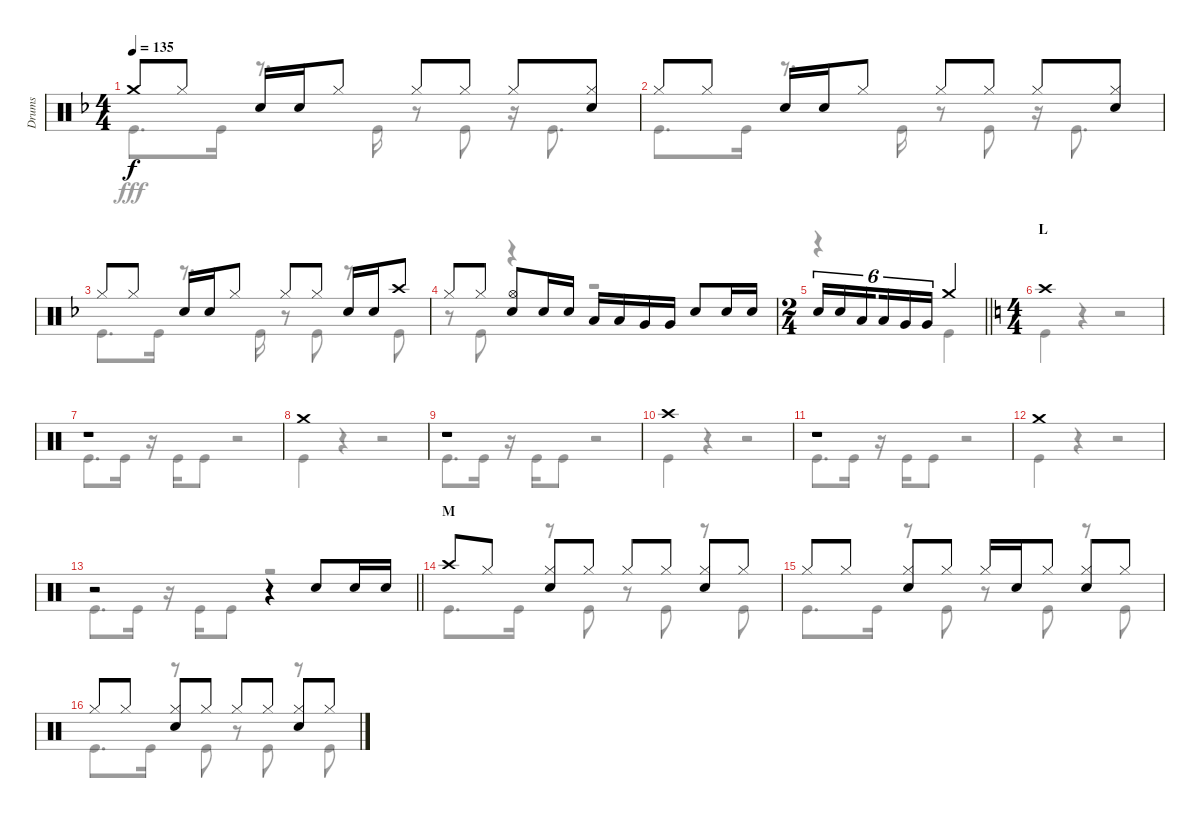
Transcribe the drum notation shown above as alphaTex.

\track ("Drums" "Drums") {instrument percussion}
\staff {score}
\articulation defaults
\voice
\ts (4 4)
\tempo 135
\clef neutral
\ks f "Crash medium (hit)".8{dy f} "Hi-Hat (closed)".8 "Snare (hit) 2".16 "Snare (hit) 2".16 "Hi-Hat (closed)".8 "Hi-Hat (closed)".8 "Hi-Hat (closed)".8 "Hi-Hat (closed)".8
("Hi-Hat (closed)" "Snare (hit) 2").8 |
"Hi-Hat (closed)".8 "Hi-Hat (closed)".8 "Snare (hit) 2".16 "Snare (hit) 2".16 "Hi-Hat (closed)".8 "Hi-Hat (closed)".8 "Hi-Hat (closed)".8 "Hi-Hat (closed)".8 ("Hi-Hat (closed)" "Snare (hit) 2").8 |
"Hi-Hat (closed)".8 "Hi-Hat (closed)".8 "Snare (hit) 2".16 "Snare (hit) 2".16 "Hi-Hat (closed)".8 "Hi-Hat (closed)".8 "Hi-Hat (closed)".8 "Snare (hit) 2".16 "Snare (hit) 2".16 "Crash high (hit)".8 |
"Hi-Hat (closed)".8 "Hi-Hat (closed)".8 ("Hi-Hat (open)" "Snare (hit) 2").8 "Snare (hit) 2".16 "Snare (hit) 2".16 "Low Tom (hit)".16 "Low Tom (hit)".16 "Very Low Tom (hit)".16 "Very Low Tom (hit)".16 "Snare (hit) 2".8 "Snare (hit) 2".16 "Snare (hit) 2".16 |
\ts (2 4)
\barLineRight lightlight "Snare (hit) 2".16{tu (6 4)} "Snare (hit) 2".16{tu (6 4)} "Low Tom (hit)".16{tu (6 4) beam splitsecondary} "Low Tom (hit)".16{tu (6 4)} "Very Low Tom (hit)".16{tu (6 4)} "Very Low Tom (hit)".16{tu (6 4)} "Crash medium (hit)".4
|
\ts (4 4)
\section ("" "L")
\ks c "Crash high (hit)".1
|
r.1 |
"Crash medium (hit)".1 |
r.1 |
"Crash high (hit)".1 |
r.1 |
"Crash medium (hit)".1 |
\barLineRight lightlight
r.2 r.4 "Snare (hit) 2".8 "Snare (hit) 2".16 "Snare (hit) 2".16 |
\section ("" "M")
"Crash high (hit)".8 "Hi-Hat (closed)".8 ("Hi-Hat (closed)" "Snare (hit) 2").8 "Hi-Hat (closed)".8 "Hi-Hat (closed)".8 "Hi-Hat (closed)".8 ("Hi-Hat (closed)" "Snare (hit) 2").8 "Hi-Hat (closed)".8 |
"Hi-Hat (closed)".8 "Hi-Hat (closed)".8 ("Hi-Hat (closed)" "Snare (hit) 2").8 "Hi-Hat (closed)".8 "Hi-Hat (closed)".16 "Snare (hit) 2".16 "Hi-Hat (closed)".8 ("Hi-Hat (closed)" "Snare (hit) 2").8 "Hi-Hat (closed)".8 |
"Hi-Hat (closed)".8 "Hi-Hat (closed)".8 ("Hi-Hat (closed)" "Snare (hit) 2").8 "Hi-Hat (closed)".8 "Hi-Hat (closed)".8 "Hi-Hat (closed)".8 ("Hi-Hat (closed)" "Snare (hit) 2").8 "Hi-Hat (closed)".8
\voice
\clef neutral
\ottava regular
\simile none
\ks f "Kick (hit)".8{d dy fff} "Kick (hit)".16
r.8{d} "Kick (hit)".16 r.8 "Kick (hit)".8 r.16 "Kick (hit)".8{d} |
"Kick (hit)".8{d} "Kick (hit)".16 r.8{d} "Kick (hit)".16 r.8 "Kick (hit)".8 r.16 "Kick (hit)".8{d} |
"Kick (hit)".8{d} "Kick (hit)".16 r.8{d} "Kick (hit)".16 r.8 "Kick (hit)".8 r.8 "Kick (hit)".8 |
r.8 "Kick (hit)".8 r.4 r.2 |
\barLineRight lightlight
r.4 "Kick (hit)".4 |
\ks c "Kick (hit)".4
r.4 r.2 |
"Kick (hit)".8{d} "Kick (hit)".16 r.16 "Kick (hit)".16 "Kick (hit)".8 r.2 |
"Kick (hit)".4 r.4 r.2 |
"Kick (hit)".8{d} "Kick (hit)".16 r.16 "Kick (hit)".16 "Kick (hit)".8 r.2 |
"Kick (hit)".4 r.4 r.2 |
"Kick (hit)".8{d} "Kick (hit)".16 r.16 "Kick (hit)".16 "Kick (hit)".8 r.2 |
"Kick (hit)".4 r.4 r.2 |
\barLineRight lightlight "Kick (hit)".8{d} "Kick (hit)".16
r.16 "Kick (hit)".16 "Kick (hit)".8 r.2 |
"Kick (hit)".8{d} "Kick (hit)".16 r.8 "Kick (hit)".8 r.8 "Kick (hit)".8 r.8 "Kick (hit)".8 |
"Kick (hit)".8{d} "Kick (hit)".16 r.8 "Kick (hit)".8 r.8 "Kick (hit)".8 r.8 "Kick (hit)".8 |
"Kick (hit)".8{d} "Kick (hit)".16 r.8 "Kick (hit)".8 r.8 "Kick (hit)".8 r.8 "Kick (hit)".8
